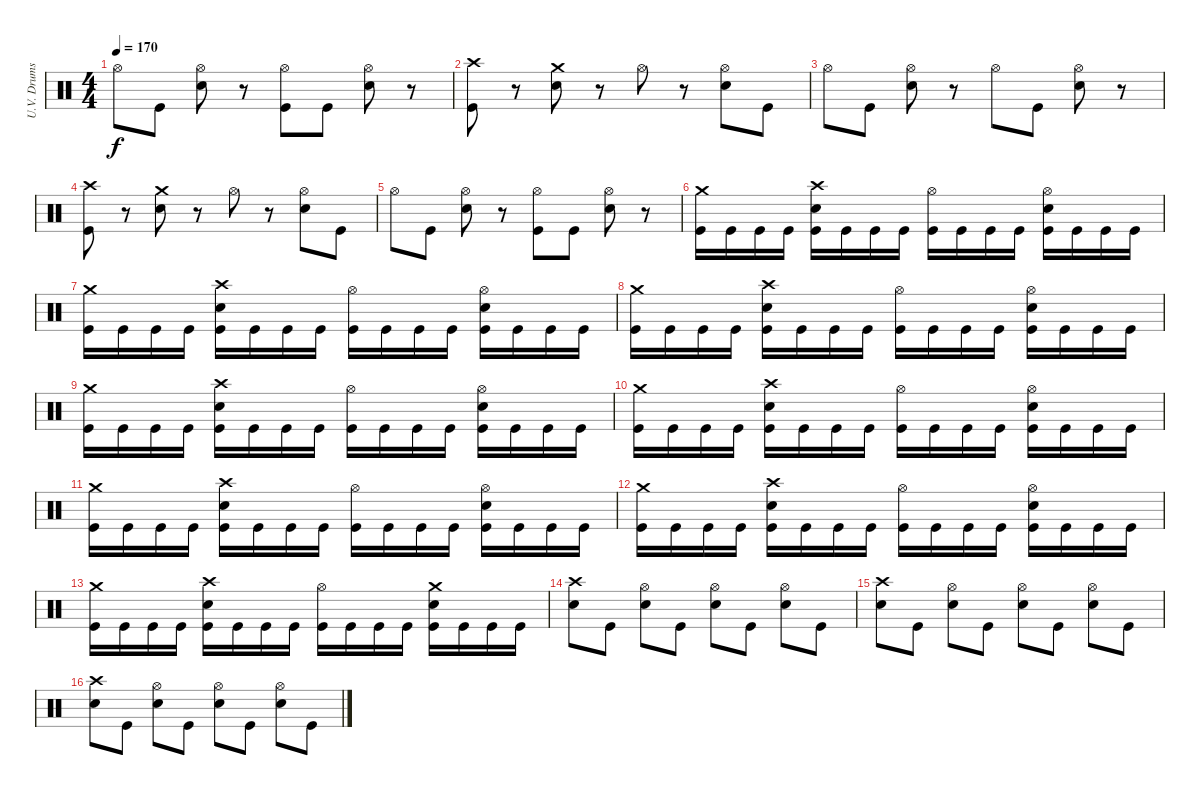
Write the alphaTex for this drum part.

\track ("U.V. Drums" "U.V. Drums") {instrument percussion}
\staff {score}
\articulation defaults
\ts (4 4)
\tempo 170
\clef neutral
\ks c "Hi-Hat (open)".8{dy f} "Kick (hit)".8
("Hi-Hat (open)" "Electric Snare (hit)").8 r.8 ("Hi-Hat (open)" "Kick (hit)").8 "Kick (hit)".8 ("Hi-Hat (open)" "Electric Snare (hit)").8 r.8 |
("Crash high (hit)" "Kick (hit)").8 r.8 ("Crash medium (hit)" "Electric Snare (hit)").8 r.8 "Hi-Hat (open)".8 r.8 ("Hi-Hat (open)" "Electric Snare (hit)").8 "Kick (hit)".8 |
"Hi-Hat (open)".8 "Kick (hit)".8 ("Hi-Hat (open)" "Electric Snare (hit)").8 r.8 "Hi-Hat (open)".8 "Kick (hit)".8 ("Hi-Hat (open)" "Electric Snare (hit)").8 r.8 |
("Crash high (hit)" "Kick (hit)").8 r.8 ("Crash medium (hit)" "Electric Snare (hit)").8 r.8 "Hi-Hat (open)".8 r.8 ("Hi-Hat (open)" "Electric Snare (hit)").8 "Kick (hit)".8 |
"Hi-Hat (open)".8 "Kick (hit)".8 ("Hi-Hat (open)" "Electric Snare (hit)").8 r.8 ("Hi-Hat (open)" "Kick (hit)").8 "Kick (hit)".8 ("Hi-Hat (open)" "Electric Snare (hit)").8 r.8 |
("Crash medium (hit)" "Kick (hit)").16 "Kick (hit)".16 "Kick (hit)".16 "Kick (hit)".16 ("Crash high (hit)" "Electric Snare (hit)" "Kick (hit)").16 "Kick (hit)".16 "Kick (hit)".16 "Kick (hit)".16 ("Hi-Hat (open)" "Kick (hit)").16 "Kick (hit)".16 "Kick (hit)".16 "Kick (hit)".16 ("Hi-Hat (open)" "Electric Snare (hit)" "Kick (hit)").16 "Kick (hit)".16 "Kick (hit)".16 "Kick (hit)".16 |
("Crash medium (hit)" "Kick (hit)").16 "Kick (hit)".16 "Kick (hit)".16 "Kick (hit)".16 ("Crash high (hit)" "Electric Snare (hit)" "Kick (hit)").16 "Kick (hit)".16 "Kick (hit)".16 "Kick (hit)".16 ("Hi-Hat (open)" "Kick (hit)").16 "Kick (hit)".16 "Kick (hit)".16 "Kick (hit)".16 ("Hi-Hat (open)" "Electric Snare (hit)" "Kick (hit)").16 "Kick (hit)".16 "Kick (hit)".16 "Kick (hit)".16 |
("Crash medium (hit)" "Kick (hit)").16 "Kick (hit)".16 "Kick (hit)".16 "Kick (hit)".16 ("Crash high (hit)" "Electric Snare (hit)" "Kick (hit)").16 "Kick (hit)".16 "Kick (hit)".16 "Kick (hit)".16 ("Hi-Hat (open)" "Kick (hit)").16 "Kick (hit)".16 "Kick (hit)".16 "Kick (hit)".16 ("Hi-Hat (open)" "Electric Snare (hit)" "Kick (hit)").16 "Kick (hit)".16 "Kick (hit)".16 "Kick (hit)".16 |
("Crash medium (hit)" "Kick (hit)").16 "Kick (hit)".16 "Kick (hit)".16 "Kick (hit)".16 ("Crash high (hit)" "Electric Snare (hit)" "Kick (hit)").16 "Kick (hit)".16 "Kick (hit)".16 "Kick (hit)".16 ("Hi-Hat (open)" "Kick (hit)").16 "Kick (hit)".16 "Kick (hit)".16 "Kick (hit)".16 ("Hi-Hat (open)" "Electric Snare (hit)" "Kick (hit)").16 "Kick (hit)".16 "Kick (hit)".16 "Kick (hit)".16 |
("Crash medium (hit)" "Kick (hit)").16 "Kick (hit)".16 "Kick (hit)".16 "Kick (hit)".16 ("Crash high (hit)" "Electric Snare (hit)" "Kick (hit)").16 "Kick (hit)".16 "Kick (hit)".16 "Kick (hit)".16 ("Hi-Hat (open)" "Kick (hit)").16 "Kick (hit)".16 "Kick (hit)".16 "Kick (hit)".16 ("Hi-Hat (open)" "Electric Snare (hit)" "Kick (hit)").16 "Kick (hit)".16 "Kick (hit)".16 "Kick (hit)".16 |
("Crash medium (hit)" "Kick (hit)").16 "Kick (hit)".16 "Kick (hit)".16 "Kick (hit)".16 ("Crash high (hit)" "Electric Snare (hit)" "Kick (hit)").16 "Kick (hit)".16 "Kick (hit)".16 "Kick (hit)".16 ("Hi-Hat (open)" "Kick (hit)").16 "Kick (hit)".16 "Kick (hit)".16 "Kick (hit)".16 ("Hi-Hat (open)" "Electric Snare (hit)" "Kick (hit)").16 "Kick (hit)".16 "Kick (hit)".16 "Kick (hit)".16 |
("Crash medium (hit)" "Kick (hit)").16 "Kick (hit)".16 "Kick (hit)".16 "Kick (hit)".16 ("Crash high (hit)" "Electric Snare (hit)" "Kick (hit)").16 "Kick (hit)".16 "Kick (hit)".16 "Kick (hit)".16 ("Hi-Hat (open)" "Kick (hit)").16 "Kick (hit)".16 "Kick (hit)".16 "Kick (hit)".16 ("Hi-Hat (open)" "Electric Snare (hit)" "Kick (hit)").16 "Kick (hit)".16 "Kick (hit)".16 "Kick (hit)".16 |
("Crash medium (hit)" "Kick (hit)").16 "Kick (hit)".16 "Kick (hit)".16 "Kick (hit)".16 ("Crash high (hit)" "Electric Snare (hit)" "Kick (hit)").16 "Kick (hit)".16 "Kick (hit)".16 "Kick (hit)".16 ("Hi-Hat (open)" "Kick (hit)").16 "Kick (hit)".16 "Kick (hit)".16 "Kick (hit)".16 ("Crash medium (hit)" "Electric Snare (hit)" "Kick (hit)").16 "Kick (hit)".16 "Kick (hit)".16 "Kick (hit)".16 |
("Crash high (hit)" "Electric Snare (hit)").8 "Kick (hit)".8 ("Hi-Hat (open)" "Electric Snare (hit)").8 "Kick (hit)".8 ("Hi-Hat (open)" "Electric Snare (hit)").8 "Kick (hit)".8 ("Hi-Hat (open)" "Electric Snare (hit)").8 "Kick (hit)".8 |
("Crash high (hit)" "Electric Snare (hit)").8 "Kick (hit)".8 ("Hi-Hat (open)" "Electric Snare (hit)").8 "Kick (hit)".8 ("Hi-Hat (open)" "Electric Snare (hit)").8 "Kick (hit)".8 ("Hi-Hat (open)" "Electric Snare (hit)").8 "Kick (hit)".8 |
("Crash high (hit)" "Electric Snare (hit)").8 "Kick (hit)".8 ("Hi-Hat (open)" "Electric Snare (hit)").8 "Kick (hit)".8 ("Hi-Hat (open)" "Electric Snare (hit)").8 "Kick (hit)".8 ("Hi-Hat (open)" "Electric Snare (hit)").8 "Kick (hit)".8
